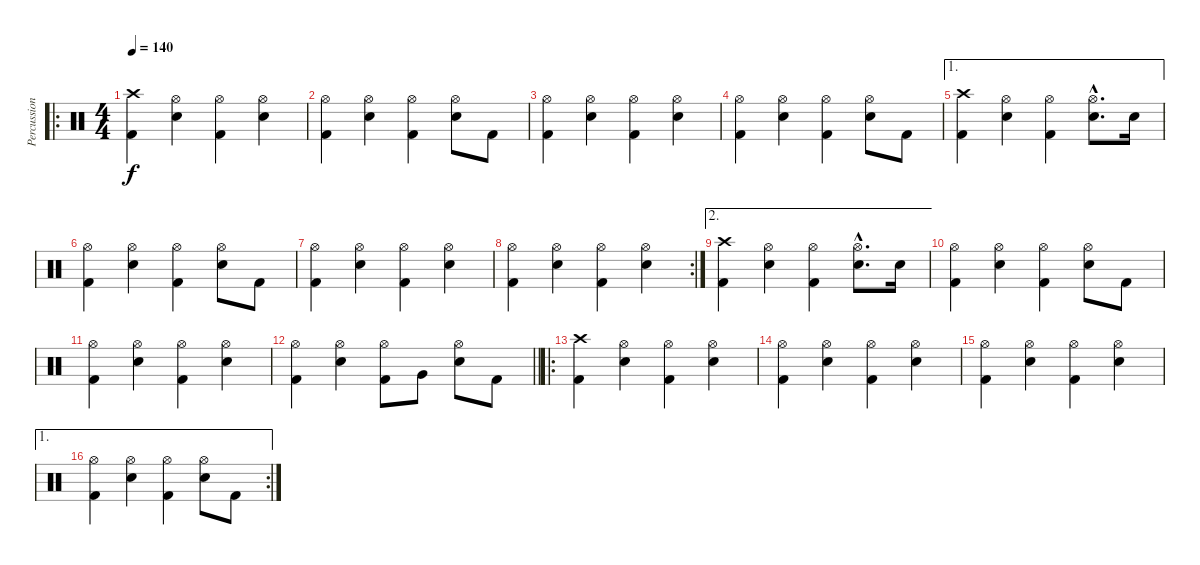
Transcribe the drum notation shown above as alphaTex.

\track ("Percussion" "Percussion") {instrument percussion}
\staff {score}
\articulation defaults
\ro
\ts (4 4)
\section ("" "")
\tempo 140
\clef neutral
\ks c
("Crash high (hit)" "Kick (hit) 2").4{dy f} ("Hi-Hat (open)" "Snare (hit) 2").4 ("Hi-Hat (open)" "Kick (hit) 2").4 ("Hi-Hat (open)" "Snare (hit) 2").4 |
("Hi-Hat (open)" "Kick (hit) 2").4 ("Hi-Hat (open)" "Snare (hit) 2").4 ("Hi-Hat (open)" "Kick (hit) 2").4 ("Hi-Hat (open)" "Snare (hit) 2").8 "Kick (hit) 2".8 |
("Hi-Hat (open)" "Kick (hit) 2").4 ("Hi-Hat (open)" "Snare (hit) 2").4 ("Hi-Hat (open)" "Kick (hit) 2").4 ("Hi-Hat (open)" "Snare (hit) 2").4 |
("Hi-Hat (open)" "Kick (hit) 2").4 ("Hi-Hat (open)" "Snare (hit) 2").4 ("Hi-Hat (open)" "Kick (hit) 2").4 ("Hi-Hat (open)" "Snare (hit) 2").8 "Kick (hit) 2".8 |
\ae 1
("Crash high (hit)" "Kick (hit) 2").4 ("Hi-Hat (open)" "Snare (hit) 2").4 ("Hi-Hat (open)" "Kick (hit) 2").4 ("Hi-Hat (open)"{hac} "Snare (hit) 2"{hac}).8{d} "Snare (hit) 2".16 |
("Hi-Hat (open)" "Kick (hit) 2").4 ("Hi-Hat (open)" "Snare (hit) 2").4 ("Hi-Hat (open)" "Kick (hit) 2").4 ("Hi-Hat (open)" "Snare (hit) 2").8 "Kick (hit) 2".8 |
("Hi-Hat (open)" "Kick (hit) 2").4 ("Hi-Hat (open)" "Snare (hit) 2").4 ("Hi-Hat (open)" "Kick (hit) 2").4 ("Hi-Hat (open)" "Snare (hit) 2").4 |
\rc 2
("Hi-Hat (open)" "Kick (hit) 2").4 ("Hi-Hat (open)" "Snare (hit) 2").4 ("Hi-Hat (open)" "Kick (hit) 2").4 ("Hi-Hat (open)" "Snare (hit) 2").4 |
\ae 2
("Crash high (hit)" "Kick (hit) 2").4 ("Hi-Hat (open)" "Snare (hit) 2").4 ("Hi-Hat (open)" "Kick (hit) 2").4 ("Hi-Hat (open)"{hac} "Snare (hit) 2"{hac}).8{d} "Snare (hit) 2".16 |
("Hi-Hat (open)" "Kick (hit) 2").4 ("Hi-Hat (open)" "Snare (hit) 2").4 ("Hi-Hat (open)" "Kick (hit) 2").4 ("Hi-Hat (open)" "Snare (hit) 2").8 "Kick (hit) 2".8 |
("Hi-Hat (open)" "Kick (hit) 2").4 ("Hi-Hat (open)" "Snare (hit) 2").4 ("Hi-Hat (open)" "Kick (hit) 2").4 ("Hi-Hat (open)" "Snare (hit) 2").4 |
\barLineRight lightlight
("Hi-Hat (open)" "Kick (hit) 2").4 ("Hi-Hat (open)" "Snare (hit) 2").4 ("Hi-Hat (open)" "Kick (hit) 2").8 "Very Low Tom (hit)".8 ("Hi-Hat (open)" "Snare (hit) 2").8 "Kick (hit) 2".8 |
\ro
\section ("" "")
("Crash high (hit)" "Kick (hit) 2").4 ("Hi-Hat (open)" "Snare (hit) 2").4 ("Hi-Hat (open)" "Kick (hit) 2").4 ("Hi-Hat (open)" "Snare (hit) 2").4 |
("Hi-Hat (open)" "Kick (hit) 2").4 ("Hi-Hat (open)" "Snare (hit) 2").4 ("Hi-Hat (open)" "Kick (hit) 2").4 ("Hi-Hat (open)" "Snare (hit) 2").4 |
("Hi-Hat (open)" "Kick (hit) 2").4 ("Hi-Hat (open)" "Snare (hit) 2").4 ("Hi-Hat (open)" "Kick (hit) 2").4 ("Hi-Hat (open)" "Snare (hit) 2").4 |
\ae 1
\rc 2
("Hi-Hat (open)" "Kick (hit) 2").4 ("Hi-Hat (open)" "Snare (hit) 2").4 ("Hi-Hat (open)" "Kick (hit) 2").4 ("Hi-Hat (open)" "Snare (hit) 2").8 "Kick (hit) 2".8
